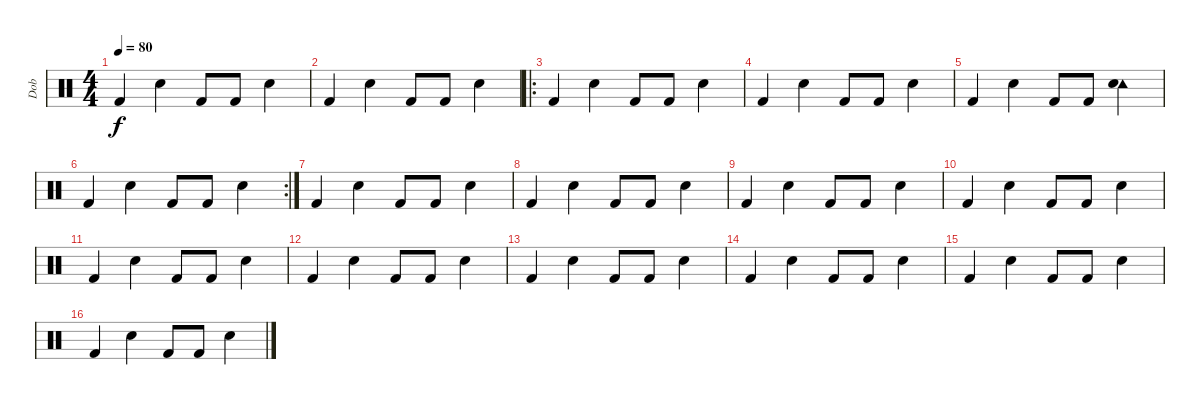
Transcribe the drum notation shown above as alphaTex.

\track ("Dob" "Dob") {instrument percussion}
\staff {score}
\articulation defaults
\ts (4 4)
\tempo 80
\clef neutral
\ks c "Kick (hit) 2".4{dy f} "Snare (hit) 2".4 "Kick (hit) 2".8 "Kick (hit) 2".8 "Snare (hit) 2".4
|
"Kick (hit) 2".4 "Snare (hit) 2".4 "Kick (hit) 2".8 "Kick (hit) 2".8 "Snare (hit) 2".4 |
\ro "Kick (hit) 2".4 "Snare (hit) 2".4 "Kick (hit) 2".8 "Kick (hit) 2".8 "Snare (hit) 2".4
|
"Kick (hit) 2".4 "Snare (hit) 2".4 "Kick (hit) 2".8 "Kick (hit) 2".8 "Snare (hit) 2".4 |
"Kick (hit) 2".4 "Snare (hit) 2".4 "Kick (hit) 2".8 "Kick (hit) 2".8 ("Tambourine (hit)" "Snare (hit) 2").4 |
\rc 2 "Kick (hit) 2".4 "Snare (hit) 2".4 "Kick (hit) 2".8 "Kick (hit) 2".8 "Snare (hit) 2".4
|
"Kick (hit) 2".4 "Snare (hit) 2".4 "Kick (hit) 2".8 "Kick (hit) 2".8 "Snare (hit) 2".4 |
"Kick (hit) 2".4 "Snare (hit) 2".4 "Kick (hit) 2".8 "Kick (hit) 2".8 "Snare (hit) 2".4 |
"Kick (hit) 2".4 "Snare (hit) 2".4 "Kick (hit) 2".8 "Kick (hit) 2".8 "Snare (hit) 2".4 |
"Kick (hit) 2".4 "Snare (hit) 2".4 "Kick (hit) 2".8 "Kick (hit) 2".8 "Snare (hit) 2".4 |
"Kick (hit) 2".4 "Snare (hit) 2".4 "Kick (hit) 2".8 "Kick (hit) 2".8 "Snare (hit) 2".4 |
"Kick (hit) 2".4 "Snare (hit) 2".4 "Kick (hit) 2".8 "Kick (hit) 2".8 "Snare (hit) 2".4 |
"Kick (hit) 2".4 "Snare (hit) 2".4 "Kick (hit) 2".8 "Kick (hit) 2".8 "Snare (hit) 2".4 |
"Kick (hit) 2".4 "Snare (hit) 2".4 "Kick (hit) 2".8 "Kick (hit) 2".8 "Snare (hit) 2".4 |
"Kick (hit) 2".4 "Snare (hit) 2".4 "Kick (hit) 2".8 "Kick (hit) 2".8 "Snare (hit) 2".4 |
"Kick (hit) 2".4 "Snare (hit) 2".4 "Kick (hit) 2".8 "Kick (hit) 2".8 "Snare (hit) 2".4
